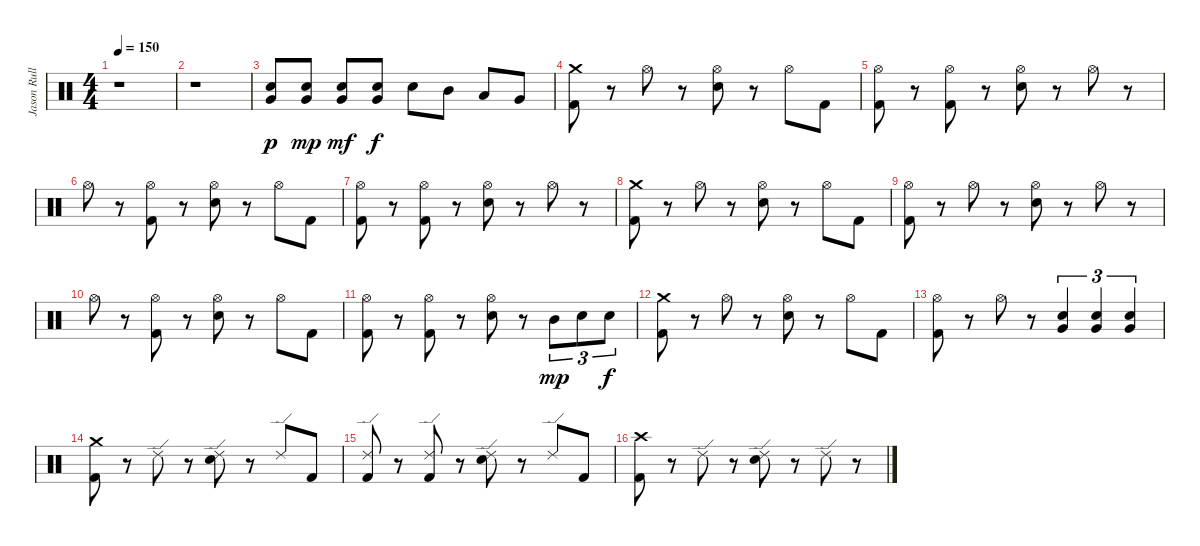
\track ("Jason Rullo" "Jason Rull") {instrument percussion}
\staff {score}
\articulation defaults
\ts (4 4)
\tempo 150
\clef neutral
\ks c
r.1{dy f} |
r.1 |
("Very Low Tom (hit)" "Electric Snare (hit)").8{dy p} ("Very Low Tom (hit)" "Electric Snare (hit)").8{dy mp} ("Very Low Tom (hit)" "Electric Snare (hit)").8{dy mf} ("Very Low Tom (hit)" "Electric Snare (hit)").8{dy f} "Electric Snare (hit)".8 "Mid Tom (hit)".8 "Low Tom (hit)".8 "Very Low Tom (hit)".8 |
("Kick (hit) 2" "Crash medium (hit)").8 r.8 "Hi-Hat (open)".8 r.8 ("Electric Snare (hit)" "Hi-Hat (open)").8 r.8 "Hi-Hat (open)".8 "Kick (hit) 2".8 |
("Hi-Hat (open)" "Kick (hit) 2").8 r.8 ("Hi-Hat (open)" "Kick (hit) 2").8 r.8 ("Hi-Hat (open)" "Electric Snare (hit)").8 r.8 "Hi-Hat (open)".8 r.8 |
"Hi-Hat (open)".8 r.8 ("Hi-Hat (open)" "Kick (hit) 2").8 r.8 ("Hi-Hat (open)" "Electric Snare (hit)").8 r.8 "Hi-Hat (open)".8 "Kick (hit) 2".8 |
("Hi-Hat (open)" "Kick (hit) 2").8 r.8 ("Hi-Hat (open)" "Kick (hit) 2").8 r.8 ("Hi-Hat (open)" "Electric Snare (hit)").8 r.8 "Hi-Hat (open)".8 r.8 |
("Kick (hit) 2" "Crash medium (hit)").8 r.8 "Hi-Hat (open)".8 r.8 ("Electric Snare (hit)" "Hi-Hat (open)").8 r.8 "Hi-Hat (open)".8 "Kick (hit) 2".8 |
("Hi-Hat (open)" "Kick (hit) 2").8 r.8 "Hi-Hat (open)".8 r.8 ("Hi-Hat (open)" "Electric Snare (hit)").8 r.8 "Hi-Hat (open)".8 r.8 |
"Hi-Hat (open)".8 r.8 ("Hi-Hat (open)" "Kick (hit) 2").8 r.8 ("Hi-Hat (open)" "Electric Snare (hit)").8 r.8 "Hi-Hat (open)".8 "Kick (hit) 2".8 |
("Hi-Hat (open)" "Kick (hit) 2").8 r.8 ("Hi-Hat (open)" "Kick (hit) 2").8 r.8 ("Hi-Hat (open)" "Electric Snare (hit)").8 r.8 "Mid Tom (hit)".8{tu (3 2) dy mp} "Electric Snare (hit)".8{tu (3 2)} "Electric Snare (hit)".8{tu (3 2) dy f} |
("Kick (hit) 2" "Crash medium (hit)").8 r.8 "Hi-Hat (open)".8 r.8 ("Electric Snare (hit)" "Hi-Hat (open)").8 r.8 "Hi-Hat (open)".8 "Kick (hit) 2".8 |
("Kick (hit) 2" "Hi-Hat (open)").8 r.8 "Hi-Hat (open)".8 r.8 ("Very Low Tom (hit)" "Electric Snare (hit)").4{tu (3 2)} ("Very Low Tom (hit)" "Electric Snare (hit)").4{tu (3 2)} ("Very Low Tom (hit)" "Electric Snare (hit)").4{tu (3 2)} |
("Crash medium (hit)" "Kick (hit) 2").8 r.8 "Ride (edge) 2".8 r.8 ("Ride (edge) 2" "Electric Snare (hit)").8 r.8 "Ride (edge) 2".8 "Kick (hit) 2".8 |
("Ride (edge) 2" "Kick (hit) 2").8 r.8 ("Ride (edge) 2" "Kick (hit) 2").8 r.8 ("Ride (edge) 2" "Electric Snare (hit)").8 r.8 "Ride (edge) 2".8 "Kick (hit) 2".8 |
("Crash high (hit)" "Kick (hit) 2").8 r.8 "Ride (edge) 2".8 r.8 ("Ride (edge) 2" "Electric Snare (hit)").8 r.8 "Ride (edge) 2".8 r.8
